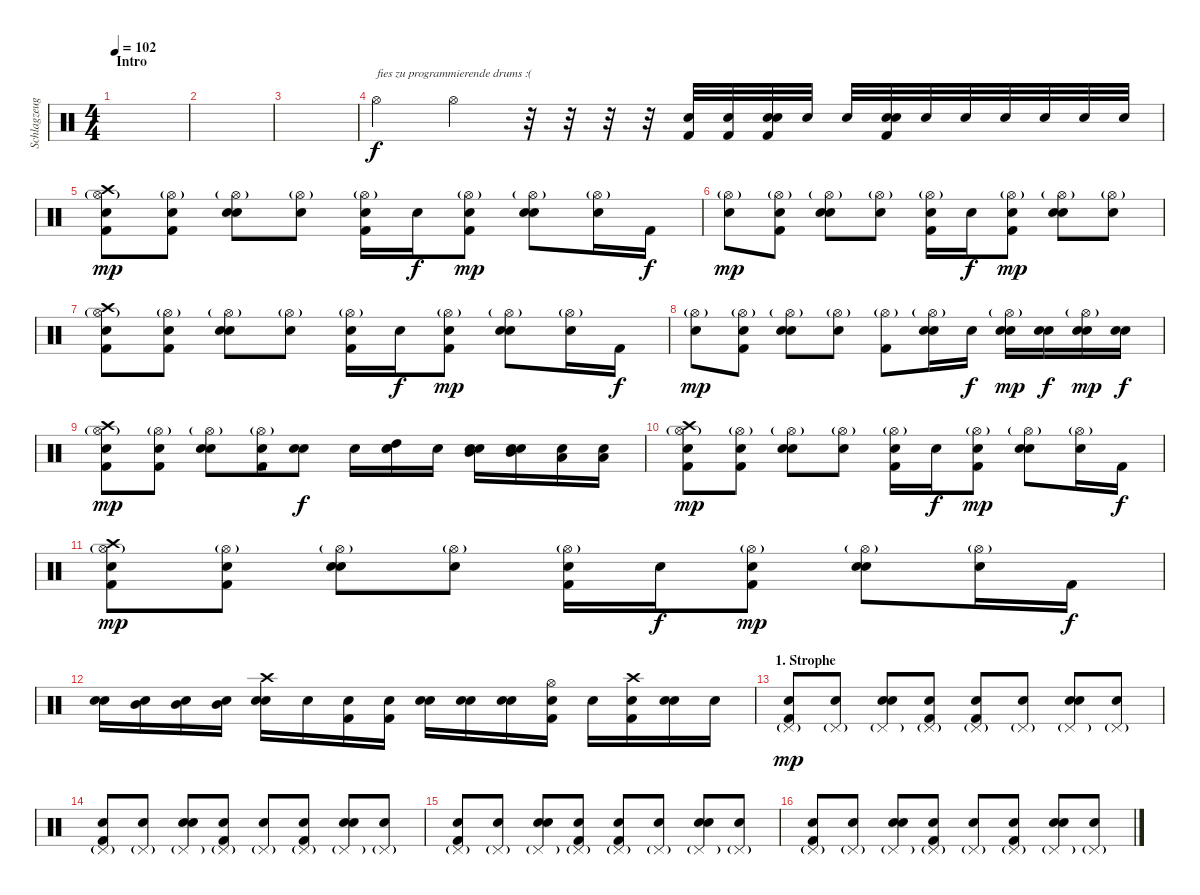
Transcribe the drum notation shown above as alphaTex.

\track ("Schlagzeug" "Schlagzeug") {instrument percussion}
\staff {score}
\articulation defaults
\ts (4 4)
\section ("" "Intro")
\tempo 102
\clef neutral
\ks c
|
|
|
"Hi-Hat (open)".4{txt "fies zu programmierende drums :("} "Hi-Hat (open)".4 r.32 r.32 r.32 r.32 ("Kick (hit) 2" "Snare (hit)").32 ("Kick (hit) 2" "Snare (hit)").32 ("Snare (hit) 2" "Kick (hit) 2" "Snare (hit)").32 "Snare (hit)".32 "Snare (hit)".32 ("Snare (hit) 2" "Kick (hit) 2" "Snare (hit)").32 "Snare (hit)".32 "Snare (hit)".32 "Snare (hit)".32 "Snare (hit)".32 "Snare (hit)".32 "Snare (hit)".32 |
("Kick (hit) 2" "Crash high (hit)" "Hi-Hat (open)"{g} "Snare (hit)").8{dy mp} ("Kick (hit) 2" "Hi-Hat (open)"{g} "Snare (hit)").8 ("Snare (hit) 2" "Hi-Hat (open)"{g} "Snare (hit)").8 ("Hi-Hat (open)"{g} "Snare (hit)").8 ("Kick (hit) 2" "Hi-Hat (open)"{g} "Snare (hit)").16 "Snare (hit) 2".16{dy f} ("Kick (hit) 2" "Hi-Hat (open)"{g} "Snare (hit)").8{dy mp} ("Snare (hit) 2" "Hi-Hat (open)"{g} "Snare (hit)").8 ("Hi-Hat (open)"{g} "Snare (hit)").16 "Kick (hit) 2".16{dy f} |
("Hi-Hat (open)"{g} "Snare (hit)").8{dy mp} ("Kick (hit) 2" "Hi-Hat (open)"{g} "Snare (hit)").8 ("Snare (hit) 2" "Hi-Hat (open)"{g} "Snare (hit)").8 ("Hi-Hat (open)"{g} "Snare (hit)").8 ("Kick (hit) 2" "Hi-Hat (open)"{g} "Snare (hit)").16 "Snare (hit) 2".16{dy f} ("Kick (hit) 2" "Hi-Hat (open)"{g} "Snare (hit)").8{dy mp} ("Snare (hit) 2" "Hi-Hat (open)"{g} "Snare (hit)").8 ("Hi-Hat (open)"{g} "Snare (hit)").8 |
("Kick (hit) 2" "Crash high (hit)" "Hi-Hat (open)"{g} "Snare (hit)").8 ("Kick (hit) 2" "Hi-Hat (open)"{g} "Snare (hit)").8 ("Snare (hit) 2" "Hi-Hat (open)"{g} "Snare (hit)").8 ("Hi-Hat (open)"{g} "Snare (hit)").8 ("Kick (hit) 2" "Hi-Hat (open)"{g} "Snare (hit)").16 "Snare (hit) 2".16{dy f} ("Kick (hit) 2" "Hi-Hat (open)"{g} "Snare (hit)").8{dy mp} ("Snare (hit) 2" "Hi-Hat (open)"{g} "Snare (hit)").8 ("Hi-Hat (open)"{g} "Snare (hit)").16 "Kick (hit) 2".16{dy f} |
("Hi-Hat (open)"{g} "Snare (hit)").8{dy mp} ("Kick (hit) 2" "Hi-Hat (open)"{g} "Snare (hit)").8 ("Snare (hit) 2" "Hi-Hat (open)"{g} "Snare (hit)").8 ("Hi-Hat (open)"{g} "Snare (hit)").8 ("Kick (hit) 2" "Hi-Hat (open)"{g}).8 ("Snare (hit) 2" "Hi-Hat (open)"{g} "Snare (hit)").16 "Snare (hit)".16{dy f} ("Snare (hit) 2" "Hi-Hat (open)"{g} "Snare (hit)").16{dy mp} ("Snare (hit) 2" "Snare (hit)").16{dy f} ("Snare (hit) 2" "Hi-Hat (open)"{g} "Snare (hit)").16{dy mp} ("Snare (hit) 2" "Snare (hit)").16{dy f} |
("Kick (hit) 2" "Crash high (hit)" "Hi-Hat (open)"{g} "Snare (hit)").8{dy mp} ("Kick (hit) 2" "Hi-Hat (open)"{g} "Snare (hit)").8 ("Snare (hit) 2" "Hi-Hat (open)"{g} "Snare (hit)").8 ("Kick (hit) 2" "Hi-Hat (open)"{g} "Snare (hit)").16 ("Snare (hit) 2" "Snare (hit)").8{dy f} "Snare (hit)".16 ("High Tom (hit)" "Snare (hit) 2" "Snare (hit)").16 "Snare (hit)".16 ("Mid Tom (hit)" "Snare (hit) 2" "Snare (hit)").16 ("Mid Tom (hit)" "Snare (hit) 2" "Snare (hit)").16 ("Low Tom (hit)" "Snare (hit)").16 ("Low Tom (hit)" "Snare (hit)").16 |
("Kick (hit) 2" "Crash high (hit)" "Hi-Hat (open)"{g} "Snare (hit)").8{dy mp} ("Kick (hit) 2" "Hi-Hat (open)"{g} "Snare (hit)").8 ("Snare (hit) 2" "Hi-Hat (open)"{g} "Snare (hit)").8 ("Hi-Hat (open)"{g} "Snare (hit)").8 ("Kick (hit) 2" "Hi-Hat (open)"{g} "Snare (hit)").16 "Snare (hit) 2".16{dy f} ("Kick (hit) 2" "Hi-Hat (open)"{g} "Snare (hit)").8{dy mp} ("Snare (hit) 2" "Hi-Hat (open)"{g} "Snare (hit)").8 ("Hi-Hat (open)"{g} "Snare (hit)").16 "Kick (hit) 2".16{dy f} |
("Kick (hit) 2" "Crash high (hit)" "Hi-Hat (open)"{g} "Snare (hit)").8{dy mp} ("Kick (hit) 2" "Hi-Hat (open)"{g} "Snare (hit)").8 ("Snare (hit) 2" "Hi-Hat (open)"{g} "Snare (hit)").8 ("Hi-Hat (open)"{g} "Snare (hit)").8 ("Kick (hit) 2" "Hi-Hat (open)"{g} "Snare (hit)").16 "Snare (hit) 2".16{dy f} ("Kick (hit) 2" "Hi-Hat (open)"{g} "Snare (hit)").8{dy mp} ("Snare (hit) 2" "Hi-Hat (open)"{g} "Snare (hit)").8 ("Hi-Hat (open)"{g} "Snare (hit)").16 "Kick (hit) 2".16{dy f} |
("Snare (hit) 2" "Snare (hit)").16 ("Mid Tom (hit)" "Snare (hit)").16 ("Mid Tom (hit)" "Snare (hit)").16 ("Mid Tom (hit)" "Snare (hit)").16 ("Snare (hit) 2" "Crash high (hit)" "Snare (hit)").16 "Snare (hit)".16 ("Kick (hit) 2" "Snare (hit)").16 ("Kick (hit) 2" "Snare (hit)").16 ("Snare (hit) 2" "Snare (hit)").16 ("Snare (hit) 2" "Snare (hit)").16 ("Snare (hit) 2" "Snare (hit)").16 ("Kick (hit) 2" "Hi-Hat (open)" "Snare (hit)").16 "Snare (hit)".16 ("Kick (hit) 2" "Crash high (hit)" "Snare (hit)").16 ("Snare (hit) 2" "Snare (hit)").16 "Snare (hit)".16 |
\section ("" "1. Strophe")
("Kick (hit) 2" "Pedal Hi-Hat (hit)"{g} "Snare (hit)").8{dy mp} ("Pedal Hi-Hat (hit)"{g} "Snare (hit)").8 ("Snare (hit) 2" "Pedal Hi-Hat (hit)"{g} "Snare (hit)").8 ("Kick (hit) 2" "Pedal Hi-Hat (hit)"{g} "Snare (hit)").8 ("Kick (hit) 2" "Pedal Hi-Hat (hit)"{g} "Snare (hit)").8 ("Pedal Hi-Hat (hit)"{g} "Snare (hit)").8 ("Snare (hit) 2" "Pedal Hi-Hat (hit)"{g} "Snare (hit)").8 ("Pedal Hi-Hat (hit)"{g} "Snare (hit)").8 |
("Kick (hit) 2" "Pedal Hi-Hat (hit)"{g} "Snare (hit)").8 ("Pedal Hi-Hat (hit)"{g} "Snare (hit)").8 ("Snare (hit) 2" "Pedal Hi-Hat (hit)"{g} "Snare (hit)").8 ("Kick (hit) 2" "Pedal Hi-Hat (hit)"{g} "Snare (hit)").8 ("Pedal Hi-Hat (hit)"{g} "Snare (hit)").8 ("Kick (hit) 2" "Pedal Hi-Hat (hit)"{g} "Snare (hit)").8 ("Snare (hit) 2" "Pedal Hi-Hat (hit)"{g} "Snare (hit)").8 ("Pedal Hi-Hat (hit)"{g} "Snare (hit)").8 |
("Kick (hit) 2" "Pedal Hi-Hat (hit)"{g} "Snare (hit)").8 ("Pedal Hi-Hat (hit)"{g} "Snare (hit)").8 ("Snare (hit) 2" "Pedal Hi-Hat (hit)"{g} "Snare (hit)").8 ("Kick (hit) 2" "Pedal Hi-Hat (hit)"{g} "Snare (hit)").8 ("Kick (hit) 2" "Pedal Hi-Hat (hit)"{g} "Snare (hit)").8 ("Pedal Hi-Hat (hit)"{g} "Snare (hit)").8 ("Snare (hit) 2" "Pedal Hi-Hat (hit)"{g} "Snare (hit)").8 ("Pedal Hi-Hat (hit)"{g} "Snare (hit)").8 |
("Kick (hit) 2" "Pedal Hi-Hat (hit)"{g} "Snare (hit)").8 ("Pedal Hi-Hat (hit)"{g} "Snare (hit)").8 ("Snare (hit) 2" "Pedal Hi-Hat (hit)"{g} "Snare (hit)").8 ("Kick (hit) 2" "Pedal Hi-Hat (hit)"{g} "Snare (hit)").8 ("Pedal Hi-Hat (hit)"{g} "Snare (hit)").8 ("Kick (hit) 2" "Pedal Hi-Hat (hit)"{g} "Snare (hit)").8 ("Snare (hit) 2" "Pedal Hi-Hat (hit)"{g} "Snare (hit)").8 ("Pedal Hi-Hat (hit)"{g} "Snare (hit)").8
